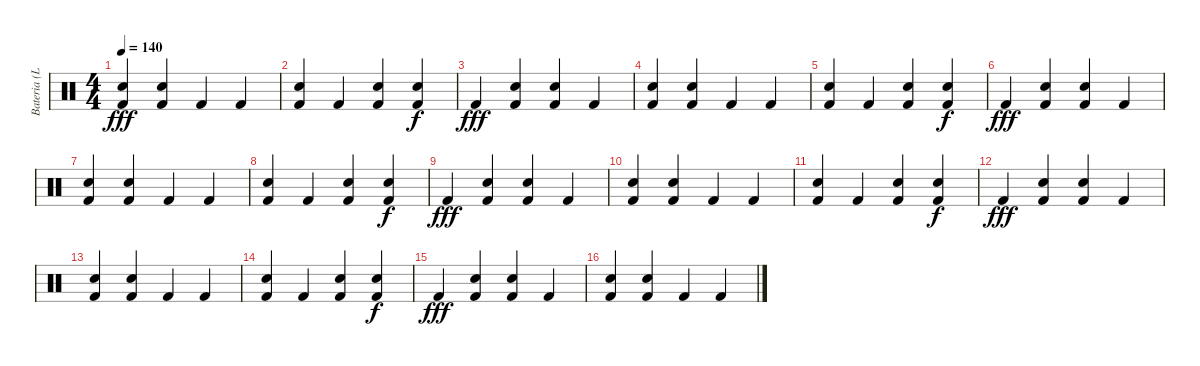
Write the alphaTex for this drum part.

\track ("Bateria (Lars)" "Bateria (L") {instrument percussion}
\staff {score}
\articulation defaults
\ts (4 4)
\tempo 140
\clef neutral
\ks c
("Electric Snare (hit)" "Kick (hit) 2").4{dy fff} ("Electric Snare (hit)" "Kick (hit) 2").4 "Kick (hit) 2".4 "Kick (hit) 2".4 |
("Electric Snare (hit)" "Kick (hit) 2").4 "Kick (hit) 2".4 ("Electric Snare (hit)" "Kick (hit) 2").4 ("Electric Snare (hit)" "Kick (hit) 2").4{dy f} |
"Kick (hit) 2".4{dy fff} ("Electric Snare (hit)" "Kick (hit) 2").4 ("Electric Snare (hit)" "Kick (hit) 2").4 "Kick (hit) 2".4 |
("Electric Snare (hit)" "Kick (hit) 2").4 ("Electric Snare (hit)" "Kick (hit) 2").4 "Kick (hit) 2".4 "Kick (hit) 2".4 |
("Electric Snare (hit)" "Kick (hit) 2").4 "Kick (hit) 2".4 ("Electric Snare (hit)" "Kick (hit) 2").4 ("Electric Snare (hit)" "Kick (hit) 2").4{dy f} |
"Kick (hit) 2".4{dy fff} ("Electric Snare (hit)" "Kick (hit) 2").4 ("Electric Snare (hit)" "Kick (hit) 2").4 "Kick (hit) 2".4 |
("Electric Snare (hit)" "Kick (hit) 2").4 ("Electric Snare (hit)" "Kick (hit) 2").4 "Kick (hit) 2".4 "Kick (hit) 2".4 |
("Electric Snare (hit)" "Kick (hit) 2").4 "Kick (hit) 2".4 ("Electric Snare (hit)" "Kick (hit) 2").4 ("Electric Snare (hit)" "Kick (hit) 2").4{dy f} |
"Kick (hit) 2".4{dy fff} ("Electric Snare (hit)" "Kick (hit) 2").4 ("Electric Snare (hit)" "Kick (hit) 2").4 "Kick (hit) 2".4 |
("Electric Snare (hit)" "Kick (hit) 2").4 ("Electric Snare (hit)" "Kick (hit) 2").4 "Kick (hit) 2".4 "Kick (hit) 2".4 |
("Electric Snare (hit)" "Kick (hit) 2").4 "Kick (hit) 2".4 ("Electric Snare (hit)" "Kick (hit) 2").4 ("Electric Snare (hit)" "Kick (hit) 2").4{dy f} |
"Kick (hit) 2".4{dy fff} ("Electric Snare (hit)" "Kick (hit) 2").4 ("Electric Snare (hit)" "Kick (hit) 2").4 "Kick (hit) 2".4 |
("Electric Snare (hit)" "Kick (hit) 2").4 ("Electric Snare (hit)" "Kick (hit) 2").4 "Kick (hit) 2".4 "Kick (hit) 2".4 |
("Electric Snare (hit)" "Kick (hit) 2").4 "Kick (hit) 2".4 ("Electric Snare (hit)" "Kick (hit) 2").4 ("Electric Snare (hit)" "Kick (hit) 2").4{dy f} |
"Kick (hit) 2".4{dy fff} ("Electric Snare (hit)" "Kick (hit) 2").4 ("Electric Snare (hit)" "Kick (hit) 2").4 "Kick (hit) 2".4 |
("Electric Snare (hit)" "Kick (hit) 2").4 ("Electric Snare (hit)" "Kick (hit) 2").4 "Kick (hit) 2".4 "Kick (hit) 2".4
